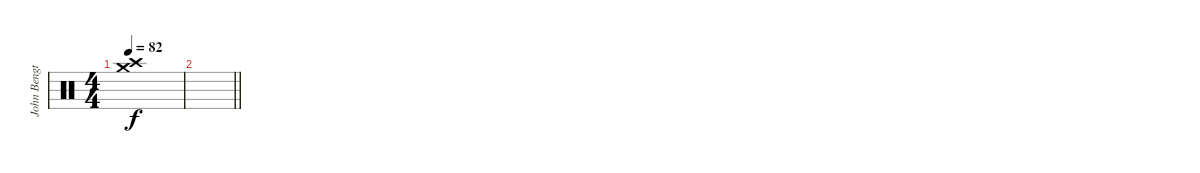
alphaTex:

\track ("John Bengtsson" "John Bengt") {instrument percussion}
\staff {score}
\articulation defaults
\ts (4 4)
\tempo 82
\clef neutral
\ks c
("Crash medium (hit)" "Crash high (hit)").1{dy f} |
\barLineRight lightlight
